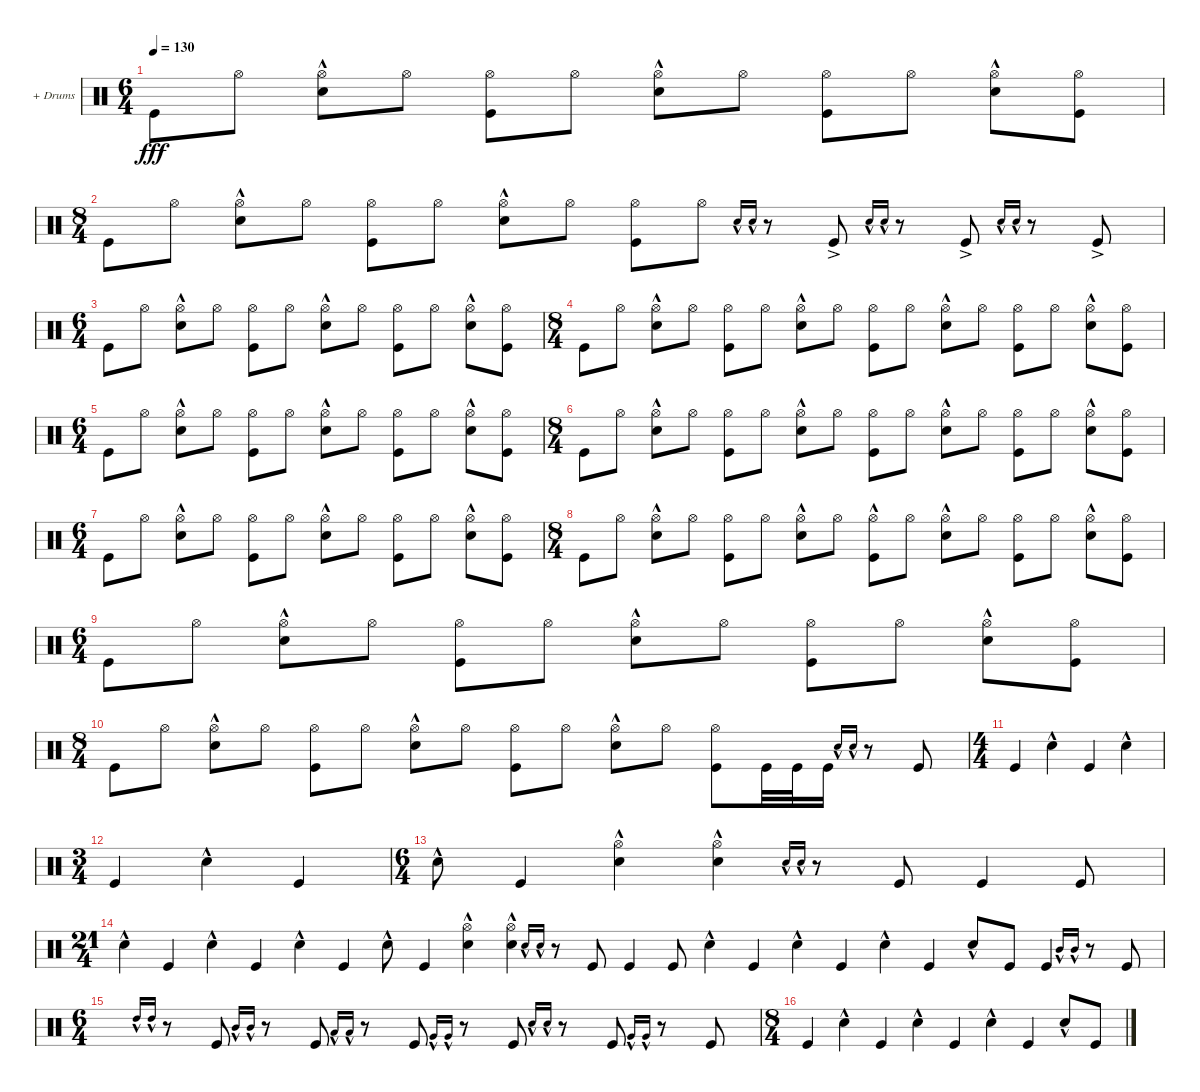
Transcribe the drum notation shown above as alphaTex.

\defaultSystemsLayout 4
\bracketExtendMode groupsimilarinstruments
\firstSystemTrackNameOrientation horizontal
\otherSystemsTrackNameOrientation horizontal
\track ("+ Drums" "+ Drums") {instrument percussion}
\staff {score}
\articulation defaults
\ts (6 4)
\tempo 130
\clef neutral
\ks c "Kick (hit)".8{dy fff} "Hi-Hat (open)".8
("Hi-Hat (open)" "Snare (hit) 2"{hac}).8 "Hi-Hat (open)".8 ("Hi-Hat (open)" "Kick (hit)").8 "Hi-Hat (open)".8 ("Hi-Hat (open)" "Snare (hit) 2"{hac}).8 "Hi-Hat (open)".8 ("Hi-Hat (open)" "Kick (hit)").8 "Hi-Hat (open)".8 ("Hi-Hat (open)" "Snare (hit) 2"{hac}).8 ("Hi-Hat (open)" "Kick (hit)").8 |
\ts (8 4)
"Kick (hit)".8 "Hi-Hat (open)".8 ("Hi-Hat (open)" "Snare (hit) 2"{hac}).8 "Hi-Hat (open)".8 ("Hi-Hat (open)" "Kick (hit)").8 "Hi-Hat (open)".8 ("Hi-Hat (open)" "Snare (hit) 2"{hac}).8 "Hi-Hat (open)".8 ("Hi-Hat (open)" "Kick (hit)").8 "Hi-Hat (open)".8 "Snare (hit) 2"{hac}.16{gr onbeat} "Snare (hit) 2"{hac}.16{gr onbeat} r.8 "Kick (hit)"{ac}.8 "Snare (hit) 2"{hac}.16{gr onbeat} "Snare (hit) 2"{hac}.16{gr onbeat} r.8 "Kick (hit)"{ac}.8 "Snare (hit) 2"{hac}.16{gr onbeat} "Snare (hit) 2"{hac}.16{gr onbeat} r.8 "Kick (hit)"{ac}.8 |
\ts (6 4)
"Kick (hit)".8 "Hi-Hat (open)".8 ("Hi-Hat (open)" "Snare (hit) 2"{hac}).8 "Hi-Hat (open)".8 ("Hi-Hat (open)" "Kick (hit)").8 "Hi-Hat (open)".8 ("Hi-Hat (open)" "Snare (hit) 2"{hac}).8 "Hi-Hat (open)".8 ("Hi-Hat (open)" "Kick (hit)").8 "Hi-Hat (open)".8 ("Hi-Hat (open)" "Snare (hit) 2"{hac}).8 ("Hi-Hat (open)" "Kick (hit)").8 |
\ts (8 4)
"Kick (hit)".8 "Hi-Hat (open)".8 ("Hi-Hat (open)" "Snare (hit) 2"{hac}).8 "Hi-Hat (open)".8 ("Hi-Hat (open)" "Kick (hit)").8 "Hi-Hat (open)".8 ("Hi-Hat (open)" "Snare (hit) 2"{hac}).8 "Hi-Hat (open)".8 ("Hi-Hat (open)" "Kick (hit)").8 "Hi-Hat (open)".8 ("Hi-Hat (open)" "Snare (hit) 2"{hac}).8 "Hi-Hat (open)".8 ("Hi-Hat (open)" "Kick (hit)").8 "Hi-Hat (open)".8 ("Hi-Hat (open)" "Snare (hit) 2"{hac}).8 ("Hi-Hat (open)" "Kick (hit)").8 |
\ts (6 4)
"Kick (hit)".8 "Hi-Hat (open)".8 ("Hi-Hat (open)" "Snare (hit) 2"{hac}).8 "Hi-Hat (open)".8 ("Hi-Hat (open)" "Kick (hit)").8 "Hi-Hat (open)".8 ("Hi-Hat (open)" "Snare (hit) 2"{hac}).8 "Hi-Hat (open)".8 ("Hi-Hat (open)" "Kick (hit)").8 "Hi-Hat (open)".8 ("Hi-Hat (open)" "Snare (hit) 2"{hac}).8 ("Hi-Hat (open)" "Kick (hit)").8 |
\ts (8 4)
"Kick (hit)".8 "Hi-Hat (open)".8 ("Hi-Hat (open)" "Snare (hit) 2"{hac}).8 "Hi-Hat (open)".8 ("Hi-Hat (open)" "Kick (hit)").8 "Hi-Hat (open)".8 ("Hi-Hat (open)" "Snare (hit) 2"{hac}).8 "Hi-Hat (open)".8 ("Hi-Hat (open)" "Kick (hit)").8 "Hi-Hat (open)".8 ("Hi-Hat (open)" "Snare (hit) 2"{hac}).8 "Hi-Hat (open)".8 ("Hi-Hat (open)" "Kick (hit)").8 "Hi-Hat (open)".8 ("Hi-Hat (open)" "Snare (hit) 2"{hac}).8 ("Hi-Hat (open)" "Kick (hit)").8 |
\ts (6 4)
"Kick (hit)".8 "Hi-Hat (open)".8 ("Hi-Hat (open)" "Snare (hit) 2"{hac}).8 "Hi-Hat (open)".8 ("Hi-Hat (open)" "Kick (hit)").8 "Hi-Hat (open)".8 ("Hi-Hat (open)" "Snare (hit) 2"{hac}).8 "Hi-Hat (open)".8 ("Hi-Hat (open)" "Kick (hit)").8 "Hi-Hat (open)".8 ("Hi-Hat (open)" "Snare (hit) 2"{hac}).8 ("Hi-Hat (open)" "Kick (hit)").8 |
\ts (8 4)
"Kick (hit)".8 "Hi-Hat (open)".8 ("Hi-Hat (open)" "Snare (hit) 2"{hac}).8 "Hi-Hat (open)".8 ("Hi-Hat (open)" "Kick (hit)").8 "Hi-Hat (open)".8 ("Hi-Hat (open)" "Snare (hit) 2"{hac}).8 "Hi-Hat (open)".8 ("Hi-Hat (open)" "Kick (hit)"{hac}).8 "Hi-Hat (open)".8 ("Hi-Hat (open)" "Snare (hit) 2"{hac}).8 "Hi-Hat (open)".8 ("Hi-Hat (open)" "Kick (hit)").8 "Hi-Hat (open)".8 ("Hi-Hat (open)" "Snare (hit) 2"{hac}).8 ("Hi-Hat (open)" "Kick (hit)").8 |
\ts (6 4)
"Kick (hit)".8 "Hi-Hat (open)".8 ("Hi-Hat (open)" "Snare (hit) 2"{hac}).8 "Hi-Hat (open)".8 ("Hi-Hat (open)" "Kick (hit)").8 "Hi-Hat (open)".8 ("Hi-Hat (open)" "Snare (hit) 2"{hac}).8 "Hi-Hat (open)".8 ("Hi-Hat (open)" "Kick (hit)").8 "Hi-Hat (open)".8 ("Hi-Hat (open)" "Snare (hit) 2"{hac}).8 ("Hi-Hat (open)" "Kick (hit)").8 |
\ts (8 4)
"Kick (hit)".8 "Hi-Hat (open)".8 ("Hi-Hat (open)" "Snare (hit) 2"{hac}).8 "Hi-Hat (open)".8 ("Hi-Hat (open)" "Kick (hit)").8 "Hi-Hat (open)".8 ("Hi-Hat (open)" "Snare (hit) 2"{hac}).8 "Hi-Hat (open)".8 ("Hi-Hat (open)" "Kick (hit)").8 "Hi-Hat (open)".8 ("Hi-Hat (open)" "Snare (hit) 2"{hac}).8 "Hi-Hat (open)".8 ("Hi-Hat (open)" "Kick (hit)").8 "Kick (hit)".32 "Kick (hit)".32 "Kick (hit)".16 "Snare (hit) 2"{hac}.16{gr onbeat} "Snare (hit) 2"{hac}.16{gr onbeat} r.8 "Kick (hit)".8 |
\ts (4 4)
"Kick (hit)".4 "Snare (hit) 2"{hac}.4 "Kick (hit)".4 "Snare (hit) 2"{hac}.4 |
\ts (3 4)
"Kick (hit)".4 "Snare (hit) 2"{hac}.4 "Kick (hit)".4 |
\ts (6 4)
"Snare (hit) 2"{hac}.8 "Kick (hit)".4 ("Hi-Hat (open)"{hac} "Snare (hit) 2"{hac}).4 ("Hi-Hat (open)"{hac} "Snare (hit) 2"{hac}).4 "Snare (hit) 2"{hac}.16{gr onbeat} "Snare (hit) 2"{hac}.16{gr onbeat} r.8 "Kick (hit)".8 "Kick (hit)".4 "Kick (hit)".8 |
\ts (21 4)
"Snare (hit) 2"{hac}.4 "Kick (hit)".4 "Snare (hit) 2"{hac}.4 "Kick (hit)".4 "Snare (hit) 2"{hac}.4 "Kick (hit)".4 "Snare (hit) 2"{hac}.8 "Kick (hit)".4 ("Hi-Hat (open)"{hac} "Snare (hit) 2"{hac}).4 ("Hi-Hat (open)"{hac} "Snare (hit) 2"{hac}).4 "Snare (hit) 2"{hac}.16{gr onbeat} "Snare (hit) 2"{hac}.16{gr onbeat} r.8 "Kick (hit)".8 "Kick (hit)".4 "Kick (hit)".8 "Snare (hit) 2"{hac}.4 "Kick (hit)".4 "Snare (hit) 2"{hac}.4 "Kick (hit)".4 "Snare (hit) 2"{hac}.4 "Kick (hit)".4 "Snare (hit) 2"{hac}.8 "Kick (hit)".8 "Kick (hit)".4 "Mid Tom (hit)"{hac}.16{gr onbeat} "Mid Tom (hit)"{hac}.16{gr onbeat} r.8 "Kick (hit)".8 |
\ts (6 4)
"High Tom (hit)"{hac}.16{gr onbeat} "High Tom (hit)"{hac}.16{gr onbeat} r.8 "Kick (hit)".8 "Mid Tom (hit)"{hac}.16{gr onbeat} "Mid Tom (hit)"{hac}.16{gr onbeat} r.8 "Kick (hit)".8 "Low Tom (hit)"{hac}.16{gr onbeat} "Low Tom (hit)"{hac}.16{gr onbeat} r.8 "Kick (hit)".8 "Very Low Tom (hit)"{hac}.16{gr onbeat} "Very Low Tom (hit)"{hac}.16{gr onbeat} r.8 "Kick (hit)".8 "Snare (hit) 2"{hac}.16{gr onbeat} "Snare (hit) 2"{hac}.16{gr onbeat} r.8 "Kick (hit)".8 "Very Low Tom (hit)"{hac}.16{gr onbeat} "Very Low Tom (hit)"{hac}.16{gr onbeat} r.8 "Kick (hit)".8 |
\ts (8 4)
"Kick (hit)".4 "Snare (hit) 2"{hac}.4 "Kick (hit)".4 "Snare (hit) 2"{hac}.4 "Kick (hit)".4 "Snare (hit) 2"{hac}.4 "Kick (hit)".4 "Snare (hit) 2"{hac}.8 "Kick (hit)".8
